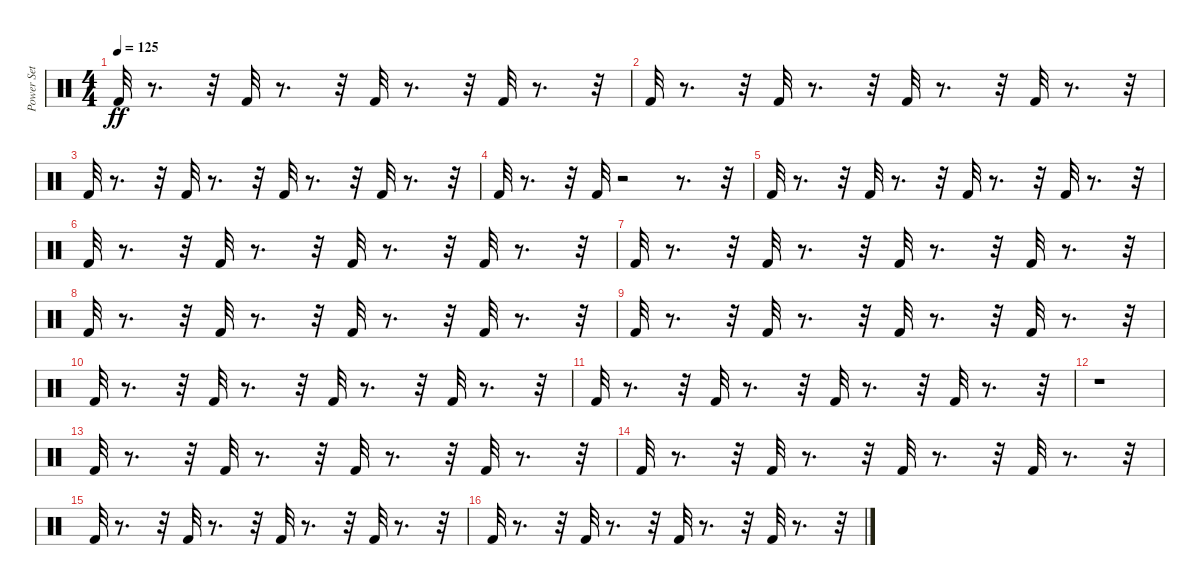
\track ("Power Set" "Power Set") {instrument percussion}
\staff {score}
\articulation defaults
\ts (4 4)
\tempo 125
\clef neutral
\ks c "Kick (hit) 2".32{dy ff}
r.8{d} r.32 "Kick (hit) 2".32 r.8{d} r.32 "Kick (hit) 2".32 r.8{d} r.32 "Kick (hit) 2".32 r.8{d} r.32 |
"Kick (hit) 2".32 r.8{d} r.32 "Kick (hit) 2".32 r.8{d} r.32 "Kick (hit) 2".32 r.8{d} r.32 "Kick (hit) 2".32 r.8{d} r.32 |
"Kick (hit) 2".32 r.8{d} r.32 "Kick (hit) 2".32 r.8{d} r.32 "Kick (hit) 2".32 r.8{d} r.32 "Kick (hit) 2".32 r.8{d} r.32 |
"Kick (hit) 2".32 r.8{d} r.32 "Kick (hit) 2".32 r.2 r.8{d} r.32 |
"Kick (hit) 2".32 r.8{d} r.32 "Kick (hit) 2".32 r.8{d} r.32 "Kick (hit) 2".32 r.8{d} r.32 "Kick (hit) 2".32 r.8{d} r.32 |
"Kick (hit) 2".32 r.8{d} r.32 "Kick (hit) 2".32 r.8{d} r.32 "Kick (hit) 2".32 r.8{d} r.32 "Kick (hit) 2".32 r.8{d} r.32 |
"Kick (hit) 2".32 r.8{d} r.32 "Kick (hit) 2".32 r.8{d} r.32 "Kick (hit) 2".32 r.8{d} r.32 "Kick (hit) 2".32 r.8{d} r.32 |
"Kick (hit) 2".32 r.8{d} r.32 "Kick (hit) 2".32 r.8{d} r.32 "Kick (hit) 2".32 r.8{d} r.32 "Kick (hit) 2".32 r.8{d} r.32 |
"Kick (hit) 2".32 r.8{d} r.32 "Kick (hit) 2".32 r.8{d} r.32 "Kick (hit) 2".32 r.8{d} r.32 "Kick (hit) 2".32 r.8{d} r.32 |
"Kick (hit) 2".32 r.8{d} r.32 "Kick (hit) 2".32 r.8{d} r.32 "Kick (hit) 2".32 r.8{d} r.32 "Kick (hit) 2".32 r.8{d} r.32 |
"Kick (hit) 2".32 r.8{d} r.32 "Kick (hit) 2".32 r.8{d} r.32 "Kick (hit) 2".32 r.8{d} r.32 "Kick (hit) 2".32 r.8{d} r.32 |
r.1 |
"Kick (hit) 2".32 r.8{d} r.32 "Kick (hit) 2".32 r.8{d} r.32 "Kick (hit) 2".32 r.8{d} r.32 "Kick (hit) 2".32 r.8{d} r.32 |
"Kick (hit) 2".32 r.8{d} r.32 "Kick (hit) 2".32 r.8{d} r.32 "Kick (hit) 2".32 r.8{d} r.32 "Kick (hit) 2".32 r.8{d} r.32 |
"Kick (hit) 2".32 r.8{d} r.32 "Kick (hit) 2".32 r.8{d} r.32 "Kick (hit) 2".32 r.8{d} r.32 "Kick (hit) 2".32 r.8{d} r.32 |
"Kick (hit) 2".32 r.8{d} r.32 "Kick (hit) 2".32 r.8{d} r.32 "Kick (hit) 2".32 r.8{d} r.32 "Kick (hit) 2".32 r.8{d} r.32
